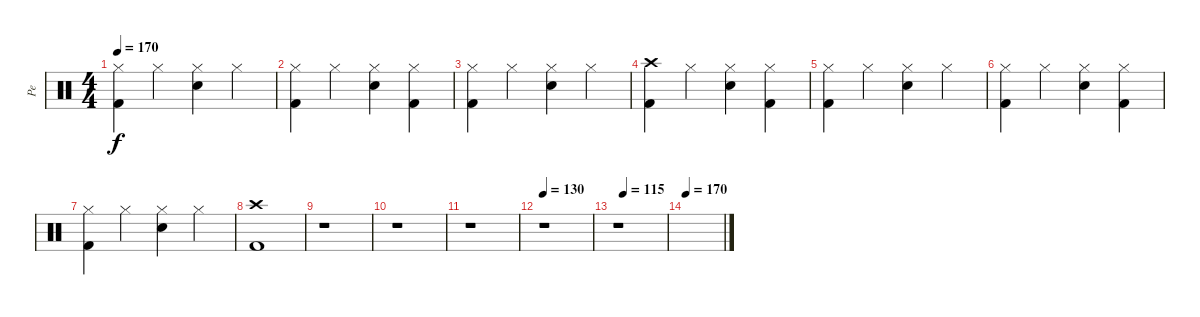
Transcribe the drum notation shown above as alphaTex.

\track ("Pe" "Pe") {instrument percussion}
\staff {score}
\articulation defaults
\ts (4 4)
\tempo 170
\clef neutral
\ks c
("Kick (hit) 2" "Hi-Hat (closed)").4{dy f} "Hi-Hat (closed)".4 ("Snare (hit) 2" "Hi-Hat (closed)").4 "Hi-Hat (closed)".4 |
("Kick (hit) 2" "Hi-Hat (closed)").4 "Hi-Hat (closed)".4 ("Snare (hit) 2" "Hi-Hat (closed)").4 ("Kick (hit) 2" "Hi-Hat (closed)").4 |
("Kick (hit) 2" "Hi-Hat (closed)").4 "Hi-Hat (closed)".4 ("Snare (hit) 2" "Hi-Hat (closed)").4 "Hi-Hat (closed)".4 |
("Kick (hit) 2" "Crash high (hit)").4 "Hi-Hat (closed)".4 ("Snare (hit) 2" "Hi-Hat (closed)").4 ("Kick (hit) 2" "Hi-Hat (closed)").4 |
("Kick (hit) 2" "Hi-Hat (closed)").4 "Hi-Hat (closed)".4 ("Snare (hit) 2" "Hi-Hat (closed)").4 "Hi-Hat (closed)".4 |
("Kick (hit) 2" "Hi-Hat (closed)").4 "Hi-Hat (closed)".4 ("Snare (hit) 2" "Hi-Hat (closed)").4 ("Kick (hit) 2" "Hi-Hat (closed)").4 |
("Kick (hit) 2" "Hi-Hat (closed)").4 "Hi-Hat (closed)".4 ("Snare (hit) 2" "Hi-Hat (closed)").4 "Hi-Hat (closed)".4 |
("Kick (hit) 2" "Crash high (hit)").1 |
r.1 |
r.1 |
r.1 |
\tempo 130
r.1 |
\tempo (115 0.125)
r.1 |
\tempo 170
